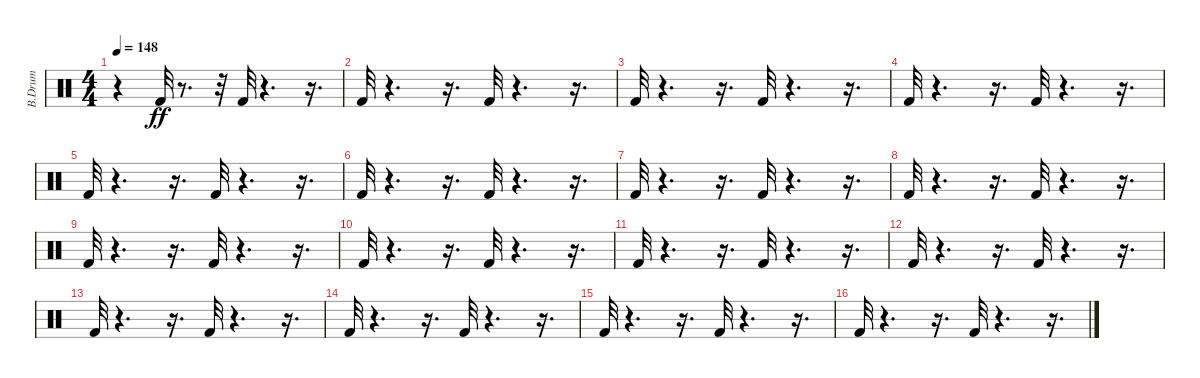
\track ("B.Drum                              " "B.Drum    ") {instrument percussion}
\staff {score}
\articulation defaults
\ts (4 4)
\tempo 148
\clef neutral
\ks c
r.4{dy ff} "Kick (hit) 2".32 r.8{d} r.32 "Kick (hit) 2".32 r.4{d} r.16{d} |
"Kick (hit) 2".32 r.4{d} r.16{d} "Kick (hit) 2".32 r.4{d} r.16{d} |
"Kick (hit) 2".32 r.4{d} r.16{d} "Kick (hit) 2".32 r.4{d} r.16{d} |
"Kick (hit) 2".32 r.4{d} r.16{d} "Kick (hit) 2".32 r.4{d} r.16{d} |
"Kick (hit) 2".32 r.4{d} r.16{d} "Kick (hit) 2".32 r.4{d} r.16{d} |
"Kick (hit) 2".32 r.4{d} r.16{d} "Kick (hit) 2".32 r.4{d} r.16{d} |
"Kick (hit) 2".32 r.4{d} r.16{d} "Kick (hit) 2".32 r.4{d} r.16{d} |
"Kick (hit) 2".32 r.4{d} r.16{d} "Kick (hit) 2".32 r.4{d} r.16{d} |
"Kick (hit) 2".32 r.4{d} r.16{d} "Kick (hit) 2".32 r.4{d} r.16{d} |
"Kick (hit) 2".32 r.4{d} r.16{d} "Kick (hit) 2".32 r.4{d} r.16{d} |
"Kick (hit) 2".32 r.4{d} r.16{d} "Kick (hit) 2".32 r.4{d} r.16{d} |
"Kick (hit) 2".32 r.4{d} r.16{d} "Kick (hit) 2".32 r.4{d} r.16{d} |
"Kick (hit) 2".32 r.4{d} r.16{d} "Kick (hit) 2".32 r.4{d} r.16{d} |
"Kick (hit) 2".32 r.4{d} r.16{d} "Kick (hit) 2".32 r.4{d} r.16{d} |
"Kick (hit) 2".32 r.4{d} r.16{d} "Kick (hit) 2".32 r.4{d} r.16{d} |
"Kick (hit) 2".32 r.4{d} r.16{d} "Kick (hit) 2".32 r.4{d} r.16{d}
